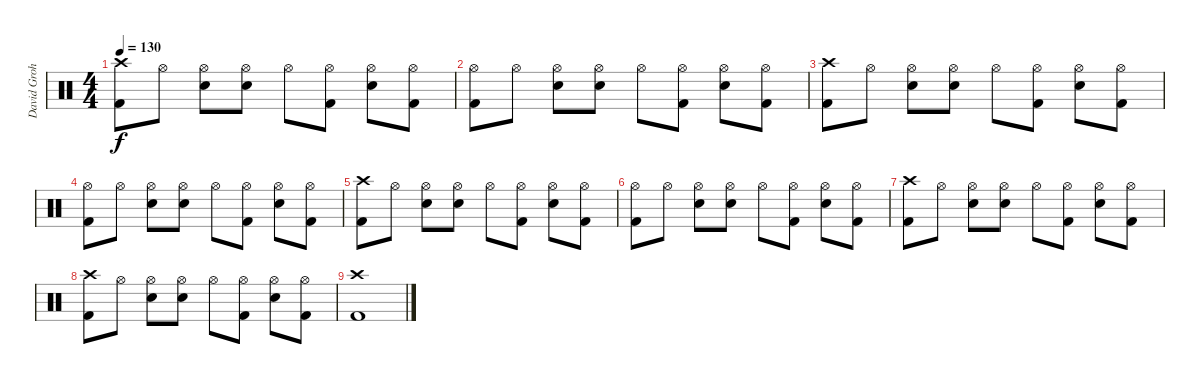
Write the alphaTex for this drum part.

\track ("David Grohl" "David Groh") {instrument percussion}
\staff {score}
\articulation defaults
\ts (4 4)
\tempo 130
\clef neutral
\ks c
("Crash high (hit)" "Kick (hit) 2").8{dy f} "Hi-Hat (open)".8 ("Hi-Hat (open)" "Electric Snare (hit)").8 ("Hi-Hat (open)" "Electric Snare (hit)").8 "Hi-Hat (open)".8 ("Hi-Hat (open)" "Kick (hit) 2").8 ("Hi-Hat (open)" "Electric Snare (hit)").8 ("Hi-Hat (open)" "Kick (hit) 2").8 |
("Hi-Hat (open)" "Kick (hit) 2").8 "Hi-Hat (open)".8 ("Hi-Hat (open)" "Electric Snare (hit)").8 ("Hi-Hat (open)" "Electric Snare (hit)").8 "Hi-Hat (open)".8 ("Hi-Hat (open)" "Kick (hit) 2").8 ("Hi-Hat (open)" "Electric Snare (hit)").8 ("Hi-Hat (open)" "Kick (hit) 2").8 |
("Crash high (hit)" "Kick (hit) 2").8 "Hi-Hat (open)".8 ("Hi-Hat (open)" "Electric Snare (hit)").8 ("Hi-Hat (open)" "Electric Snare (hit)").8 "Hi-Hat (open)".8 ("Hi-Hat (open)" "Kick (hit) 2").8 ("Hi-Hat (open)" "Electric Snare (hit)").8 ("Hi-Hat (open)" "Kick (hit) 2").8 |
("Hi-Hat (open)" "Kick (hit) 2").8 "Hi-Hat (open)".8 ("Hi-Hat (open)" "Electric Snare (hit)").8 ("Hi-Hat (open)" "Electric Snare (hit)").8 "Hi-Hat (open)".8 ("Hi-Hat (open)" "Kick (hit) 2").8 ("Hi-Hat (open)" "Electric Snare (hit)").8 ("Hi-Hat (open)" "Kick (hit) 2").8 |
("Crash high (hit)" "Kick (hit) 2").8 "Hi-Hat (open)".8 ("Hi-Hat (open)" "Electric Snare (hit)").8 ("Hi-Hat (open)" "Electric Snare (hit)").8 "Hi-Hat (open)".8 ("Hi-Hat (open)" "Kick (hit) 2").8 ("Hi-Hat (open)" "Electric Snare (hit)").8 ("Hi-Hat (open)" "Kick (hit) 2").8 |
("Hi-Hat (open)" "Kick (hit) 2").8 "Hi-Hat (open)".8 ("Hi-Hat (open)" "Electric Snare (hit)").8 ("Hi-Hat (open)" "Electric Snare (hit)").8 "Hi-Hat (open)".8 ("Hi-Hat (open)" "Kick (hit) 2").8 ("Hi-Hat (open)" "Electric Snare (hit)").8 ("Hi-Hat (open)" "Kick (hit) 2").8 |
("Crash high (hit)" "Kick (hit) 2").8 "Hi-Hat (open)".8 ("Hi-Hat (open)" "Electric Snare (hit)").8 ("Hi-Hat (open)" "Electric Snare (hit)").8 "Hi-Hat (open)".8 ("Hi-Hat (open)" "Kick (hit) 2").8 ("Hi-Hat (open)" "Electric Snare (hit)").8 ("Hi-Hat (open)" "Kick (hit) 2").8 |
("Crash high (hit)" "Kick (hit) 2").8 "Hi-Hat (open)".8 ("Hi-Hat (open)" "Electric Snare (hit)").8 ("Hi-Hat (open)" "Electric Snare (hit)").8 "Hi-Hat (open)".8 ("Hi-Hat (open)" "Kick (hit) 2").8 ("Hi-Hat (open)" "Electric Snare (hit)").8 ("Hi-Hat (open)" "Kick (hit) 2").8 |
("Crash high (hit)" "Kick (hit) 2").1
